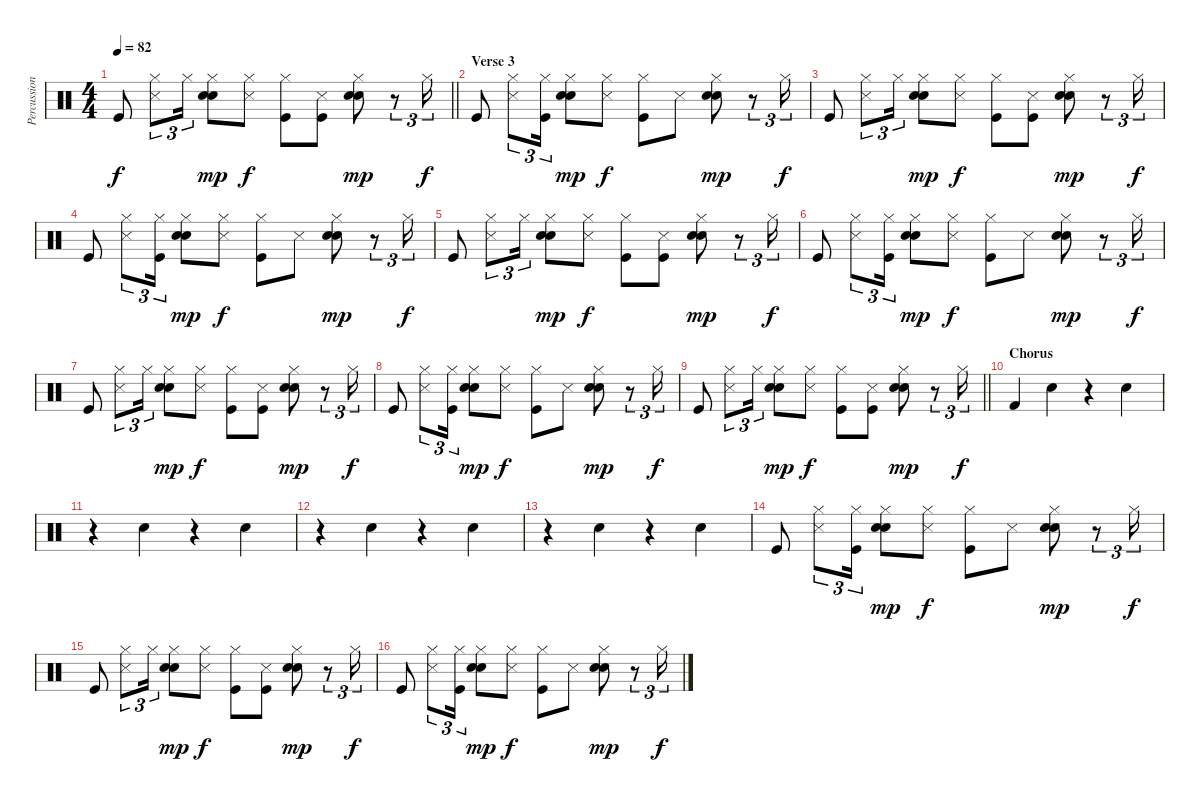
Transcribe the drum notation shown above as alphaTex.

\track ("Percussion" "Percussion") {instrument percussion}
\staff {score}
\articulation defaults
\ts (4 4)
\tempo 82
\clef neutral
\barLineRight lightlight
\ks c "Kick (hit)".8{dy f}
("Hi-Hat (closed)" "Snare (side stick) 3").8{tu (3 2)} "Hi-Hat (closed)".16{tu (3 2)} ("Hi-Hat (closed)" "Hand Clap (hit)" "Electric Snare (hit)").8{dy mp} ("Hi-Hat (closed)" "Snare (side stick) 3").8{dy f} ("Hi-Hat (closed)" "Kick (hit)").8 ("Snare (side stick) 3" "Kick (hit)").8 ("Hi-Hat (closed)" "Hand Clap (hit)" "Electric Snare (hit)").8{dy mp} r.8{tu (3 2)} "Hi-Hat (closed)".16{tu (3 2) dy f} |
\section ("" "Verse 3")
"Kick (hit)".8{volume 13} ("Hi-Hat (closed)" "Snare (side stick) 3").8{tu (3 2)} ("Hi-Hat (closed)" "Kick (hit)").16{tu (3 2)} ("Hi-Hat (closed)" "Hand Clap (hit)" "Electric Snare (hit)").8{dy mp} ("Hi-Hat (closed)" "Snare (side stick) 3").8{dy f} ("Hi-Hat (closed)" "Kick (hit)").8 "Snare (side stick) 3".8 ("Hi-Hat (closed)" "Hand Clap (hit)" "Electric Snare (hit)").8{dy mp} r.8{tu (3 2)} "Hi-Hat (closed)".16{tu (3 2) dy f} |
"Kick (hit)".8 ("Hi-Hat (closed)" "Snare (side stick) 3").8{tu (3 2)} "Hi-Hat (closed)".16{tu (3 2)} ("Hi-Hat (closed)" "Hand Clap (hit)" "Electric Snare (hit)").8{dy mp} ("Hi-Hat (closed)" "Snare (side stick) 3").8{dy f} ("Hi-Hat (closed)" "Kick (hit)").8 ("Snare (side stick) 3" "Kick (hit)").8 ("Hi-Hat (closed)" "Hand Clap (hit)" "Electric Snare (hit)").8{dy mp} r.8{tu (3 2)} "Hi-Hat (closed)".16{tu (3 2) dy f} |
"Kick (hit)".8{volume 13} ("Hi-Hat (closed)" "Snare (side stick) 3").8{tu (3 2)} ("Hi-Hat (closed)" "Kick (hit)").16{tu (3 2)} ("Hi-Hat (closed)" "Hand Clap (hit)" "Electric Snare (hit)").8{dy mp} ("Hi-Hat (closed)" "Snare (side stick) 3").8{dy f} ("Hi-Hat (closed)" "Kick (hit)").8 "Snare (side stick) 3".8 ("Hi-Hat (closed)" "Hand Clap (hit)" "Electric Snare (hit)").8{dy mp} r.8{tu (3 2)} "Hi-Hat (closed)".16{tu (3 2) dy f} |
"Kick (hit)".8 ("Hi-Hat (closed)" "Snare (side stick) 3").8{tu (3 2)} "Hi-Hat (closed)".16{tu (3 2)} ("Hi-Hat (closed)" "Hand Clap (hit)" "Electric Snare (hit)").8{dy mp} ("Hi-Hat (closed)" "Snare (side stick) 3").8{dy f} ("Hi-Hat (closed)" "Kick (hit)").8 ("Snare (side stick) 3" "Kick (hit)").8 ("Hi-Hat (closed)" "Hand Clap (hit)" "Electric Snare (hit)").8{dy mp} r.8{tu (3 2)} "Hi-Hat (closed)".16{tu (3 2) dy f} |
"Kick (hit)".8{volume 13} ("Hi-Hat (closed)" "Snare (side stick) 3").8{tu (3 2)} ("Hi-Hat (closed)" "Kick (hit)").16{tu (3 2)} ("Hi-Hat (closed)" "Hand Clap (hit)" "Electric Snare (hit)").8{dy mp} ("Hi-Hat (closed)" "Snare (side stick) 3").8{dy f} ("Hi-Hat (closed)" "Kick (hit)").8 "Snare (side stick) 3".8 ("Hi-Hat (closed)" "Hand Clap (hit)" "Electric Snare (hit)").8{dy mp} r.8{tu (3 2)} "Hi-Hat (closed)".16{tu (3 2) dy f} |
"Kick (hit)".8 ("Hi-Hat (closed)" "Snare (side stick) 3").8{tu (3 2)} "Hi-Hat (closed)".16{tu (3 2)} ("Hi-Hat (closed)" "Hand Clap (hit)" "Electric Snare (hit)").8{dy mp} ("Hi-Hat (closed)" "Snare (side stick) 3").8{dy f} ("Hi-Hat (closed)" "Kick (hit)").8 ("Snare (side stick) 3" "Kick (hit)").8 ("Hi-Hat (closed)" "Hand Clap (hit)" "Electric Snare (hit)").8{dy mp} r.8{tu (3 2)} "Hi-Hat (closed)".16{tu (3 2) dy f} |
"Kick (hit)".8{volume 13} ("Hi-Hat (closed)" "Snare (side stick) 3").8{tu (3 2)} ("Hi-Hat (closed)" "Kick (hit)").16{tu (3 2)} ("Hi-Hat (closed)" "Hand Clap (hit)" "Electric Snare (hit)").8{dy mp} ("Hi-Hat (closed)" "Snare (side stick) 3").8{dy f} ("Hi-Hat (closed)" "Kick (hit)").8 "Snare (side stick) 3".8 ("Hi-Hat (closed)" "Hand Clap (hit)" "Electric Snare (hit)").8{dy mp} r.8{tu (3 2)} "Hi-Hat (closed)".16{tu (3 2) dy f} |
\barLineRight lightlight "Kick (hit)".8
("Hi-Hat (closed)" "Snare (side stick) 3").8{tu (3 2)} "Hi-Hat (closed)".16{tu (3 2)} ("Hi-Hat (closed)" "Hand Clap (hit)" "Electric Snare (hit)").8{dy mp} ("Hi-Hat (closed)" "Snare (side stick) 3").8{dy f} ("Hi-Hat (closed)" "Kick (hit)").8 ("Snare (side stick) 3" "Kick (hit)").8 ("Hi-Hat (closed)" "Hand Clap (hit)" "Electric Snare (hit)").8{dy mp} r.8{tu (3 2)} "Hi-Hat (closed)".16{tu (3 2) dy f} |
\section ("" "Chorus")
"Kick (hit) 2".4 "Hand Clap (hit)".4 r.4 "Hand Clap (hit)".4 |
r.4 "Hand Clap (hit)".4 r.4 "Hand Clap (hit)".4 |
r.4 "Hand Clap (hit)".4 r.4 "Hand Clap (hit)".4 |
r.4 "Hand Clap (hit)".4 r.4 "Hand Clap (hit)".4 |
"Kick (hit)".8 ("Hi-Hat (closed)" "Snare (side stick) 3").8{tu (3 2)} ("Hi-Hat (closed)" "Kick (hit)").16{tu (3 2)} ("Hi-Hat (closed)" "Hand Clap (hit)" "Electric Snare (hit)").8{dy mp} ("Hi-Hat (closed)" "Snare (side stick) 3").8{dy f} ("Hi-Hat (closed)" "Kick (hit)").8 "Snare (side stick) 3".8 ("Hi-Hat (closed)" "Hand Clap (hit)" "Electric Snare (hit)").8{dy mp} r.8{tu (3 2)} "Hi-Hat (closed)".16{tu (3 2) dy f} |
"Kick (hit)".8 ("Hi-Hat (closed)" "Snare (side stick) 3").8{tu (3 2)} "Hi-Hat (closed)".16{tu (3 2)} ("Hi-Hat (closed)" "Hand Clap (hit)" "Electric Snare (hit)").8{dy mp} ("Hi-Hat (closed)" "Snare (side stick) 3").8{dy f} ("Hi-Hat (closed)" "Kick (hit)").8 ("Snare (side stick) 3" "Kick (hit)").8 ("Hi-Hat (closed)" "Hand Clap (hit)" "Electric Snare (hit)").8{dy mp} r.8{tu (3 2)} "Hi-Hat (closed)".16{tu (3 2) dy f} |
"Kick (hit)".8 ("Hi-Hat (closed)" "Snare (side stick) 3").8{tu (3 2)} ("Hi-Hat (closed)" "Kick (hit)").16{tu (3 2)} ("Hi-Hat (closed)" "Hand Clap (hit)" "Electric Snare (hit)").8{dy mp} ("Hi-Hat (closed)" "Snare (side stick) 3").8{dy f} ("Hi-Hat (closed)" "Kick (hit)").8 "Snare (side stick) 3".8 ("Hi-Hat (closed)" "Hand Clap (hit)" "Electric Snare (hit)").8{dy mp} r.8{tu (3 2)} "Hi-Hat (closed)".16{tu (3 2) dy f}
